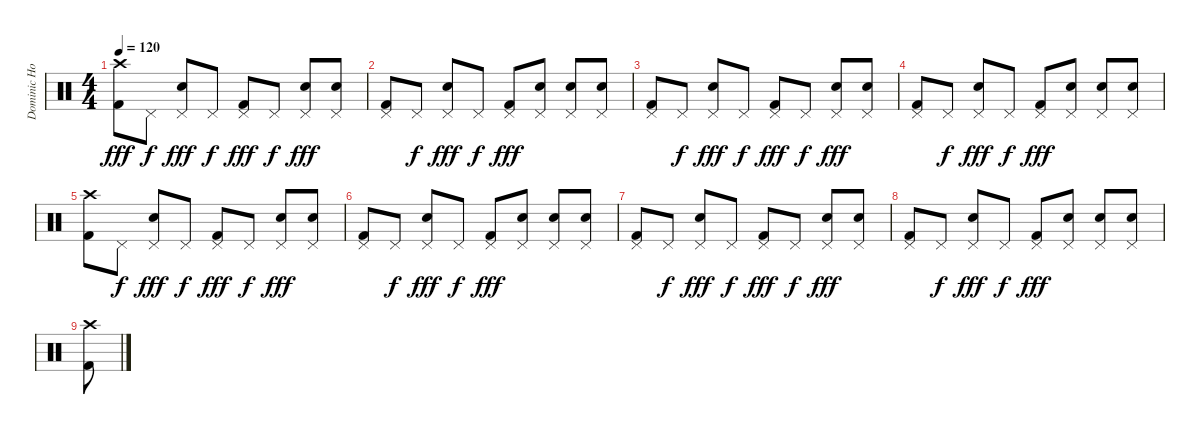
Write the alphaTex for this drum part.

\track ("Dominic Howard" "Dominic Ho") {instrument percussion}
\staff {score}
\articulation defaults
\ts (4 4)
\tempo 120
\clef neutral
\ks c
("Crash high (hit)" "Kick (hit) 2").8{dy fff} "Pedal Hi-Hat (hit)".8{dy f} ("Pedal Hi-Hat (hit)" "Snare (hit) 2").8{dy fff} "Pedal Hi-Hat (hit)".8{dy f} ("Pedal Hi-Hat (hit)" "Kick (hit) 2").8{dy fff} "Pedal Hi-Hat (hit)".8{dy f} ("Pedal Hi-Hat (hit)" "Snare (hit) 2").8{dy fff} ("Pedal Hi-Hat (hit)" "Snare (hit) 2").8 |
("Pedal Hi-Hat (hit)" "Kick (hit) 2").8 "Pedal Hi-Hat (hit)".8{dy f} ("Pedal Hi-Hat (hit)" "Snare (hit) 2").8{dy fff} "Pedal Hi-Hat (hit)".8{dy f} ("Pedal Hi-Hat (hit)" "Kick (hit) 2").8{dy fff} ("Pedal Hi-Hat (hit)" "Snare (hit) 2").8 ("Pedal Hi-Hat (hit)" "Snare (hit) 2").8 ("Pedal Hi-Hat (hit)" "Snare (hit) 2").8 |
("Pedal Hi-Hat (hit)" "Kick (hit) 2").8 "Pedal Hi-Hat (hit)".8{dy f} ("Pedal Hi-Hat (hit)" "Snare (hit) 2").8{dy fff} "Pedal Hi-Hat (hit)".8{dy f} ("Pedal Hi-Hat (hit)" "Kick (hit) 2").8{dy fff} "Pedal Hi-Hat (hit)".8{dy f} ("Pedal Hi-Hat (hit)" "Snare (hit) 2").8{dy fff} ("Pedal Hi-Hat (hit)" "Snare (hit) 2").8 |
("Pedal Hi-Hat (hit)" "Kick (hit) 2").8 "Pedal Hi-Hat (hit)".8{dy f} ("Pedal Hi-Hat (hit)" "Snare (hit) 2").8{dy fff} "Pedal Hi-Hat (hit)".8{dy f} ("Pedal Hi-Hat (hit)" "Kick (hit) 2").8{dy fff} ("Pedal Hi-Hat (hit)" "Snare (hit) 2").8 ("Pedal Hi-Hat (hit)" "Snare (hit) 2").8 ("Pedal Hi-Hat (hit)" "Snare (hit) 2").8 |
("Crash high (hit)" "Kick (hit) 2").8 "Pedal Hi-Hat (hit)".8{dy f} ("Pedal Hi-Hat (hit)" "Snare (hit) 2").8{dy fff} "Pedal Hi-Hat (hit)".8{dy f} ("Pedal Hi-Hat (hit)" "Kick (hit) 2").8{dy fff} "Pedal Hi-Hat (hit)".8{dy f} ("Pedal Hi-Hat (hit)" "Snare (hit) 2").8{dy fff} ("Pedal Hi-Hat (hit)" "Snare (hit) 2").8 |
("Pedal Hi-Hat (hit)" "Kick (hit) 2").8 "Pedal Hi-Hat (hit)".8{dy f} ("Pedal Hi-Hat (hit)" "Snare (hit) 2").8{dy fff} "Pedal Hi-Hat (hit)".8{dy f} ("Pedal Hi-Hat (hit)" "Kick (hit) 2").8{dy fff} ("Pedal Hi-Hat (hit)" "Snare (hit) 2").8 ("Pedal Hi-Hat (hit)" "Snare (hit) 2").8 ("Pedal Hi-Hat (hit)" "Snare (hit) 2").8 |
("Pedal Hi-Hat (hit)" "Kick (hit) 2").8 "Pedal Hi-Hat (hit)".8{dy f} ("Pedal Hi-Hat (hit)" "Snare (hit) 2").8{dy fff} "Pedal Hi-Hat (hit)".8{dy f} ("Pedal Hi-Hat (hit)" "Kick (hit) 2").8{dy fff} "Pedal Hi-Hat (hit)".8{dy f} ("Pedal Hi-Hat (hit)" "Snare (hit) 2").8{dy fff} ("Pedal Hi-Hat (hit)" "Snare (hit) 2").8 |
("Pedal Hi-Hat (hit)" "Kick (hit) 2").8 "Pedal Hi-Hat (hit)".8{dy f} ("Pedal Hi-Hat (hit)" "Snare (hit) 2").8{dy fff} "Pedal Hi-Hat (hit)".8{dy f} ("Pedal Hi-Hat (hit)" "Kick (hit) 2").8{dy fff} ("Pedal Hi-Hat (hit)" "Snare (hit) 2").8 ("Pedal Hi-Hat (hit)" "Snare (hit) 2").8 ("Pedal Hi-Hat (hit)" "Snare (hit) 2").8 |
("Crash high (hit)" "Kick (hit) 2").8
